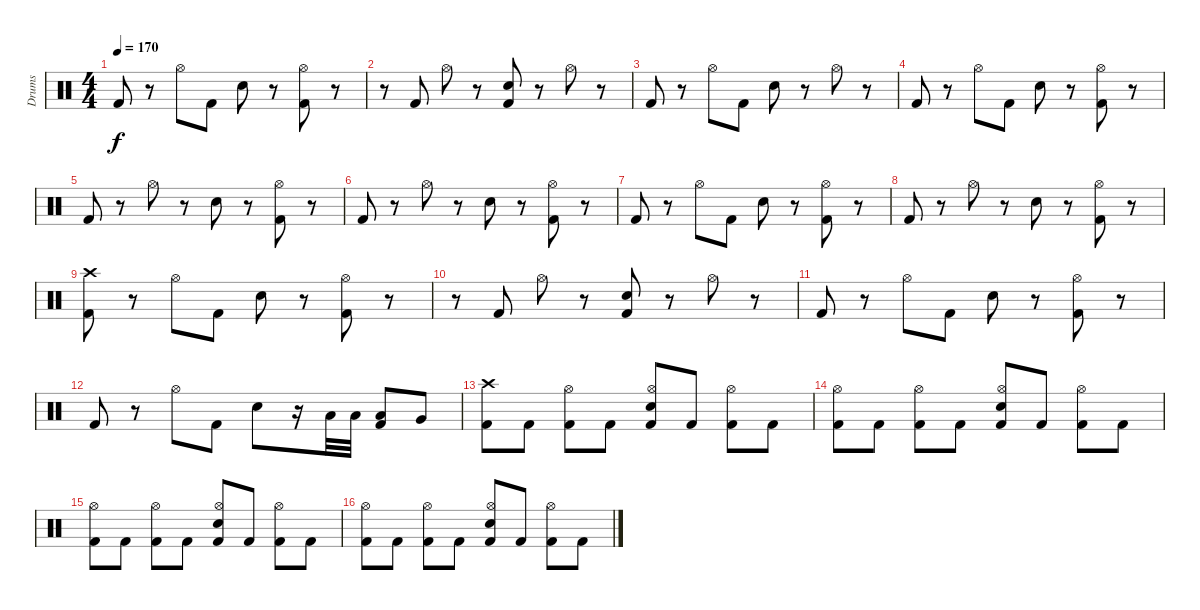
\track ("Drums" "Drums") {instrument percussion}
\staff {score}
\articulation defaults
\ts (4 4)
\tempo 170
\clef neutral
\ks c "Kick (hit) 2".8{dy f}
r.8 "Hi-Hat (open)".8 "Kick (hit) 2".8 "Electric Snare (hit)".8 r.8 ("Kick (hit) 2" "Hi-Hat (open)").8 r.8 |
r.8 "Kick (hit) 2".8 "Hi-Hat (open)".8 r.8 ("Kick (hit) 2" "Electric Snare (hit)").8 r.8 "Hi-Hat (open)".8 r.8 |
"Kick (hit) 2".8 r.8 "Hi-Hat (open)".8 "Kick (hit) 2".8 "Electric Snare (hit)".8 r.8 "Hi-Hat (open)".8 r.8 |
"Kick (hit) 2".8 r.8 "Hi-Hat (open)".8 "Kick (hit) 2".8 "Electric Snare (hit)".8 r.8 ("Kick (hit) 2" "Hi-Hat (open)").8 r.8 |
"Kick (hit) 2".8 r.8 "Hi-Hat (open)".8 r.8 "Electric Snare (hit)".8 r.8 ("Kick (hit) 2" "Hi-Hat (open)").8 r.8 |
"Kick (hit) 2".8 r.8 "Hi-Hat (open)".8 r.8 "Electric Snare (hit)".8 r.8 ("Kick (hit) 2" "Hi-Hat (open)").8 r.8 |
"Kick (hit) 2".8 r.8 "Hi-Hat (open)".8 "Kick (hit) 2".8 "Electric Snare (hit)".8 r.8 ("Kick (hit) 2" "Hi-Hat (open)").8 r.8 |
"Kick (hit) 2".8 r.8 "Hi-Hat (open)".8 r.8 "Electric Snare (hit)".8 r.8 ("Kick (hit) 2" "Hi-Hat (open)").8 r.8 |
("Kick (hit) 2" "Crash high (hit)").8 r.8 "Hi-Hat (open)".8 "Kick (hit) 2".8 "Electric Snare (hit)".8 r.8 ("Kick (hit) 2" "Hi-Hat (open)").8 r.8 |
r.8 "Kick (hit) 2".8 "Hi-Hat (open)".8 r.8 ("Kick (hit) 2" "Electric Snare (hit)").8 r.8 "Hi-Hat (open)".8 r.8 |
"Kick (hit) 2".8 r.8 "Hi-Hat (open)".8 "Kick (hit) 2".8 "Electric Snare (hit)".8 r.8 ("Kick (hit) 2" "Hi-Hat (open)").8 r.8 |
"Kick (hit) 2".8 r.8 "Hi-Hat (open)".8 "Kick (hit) 2".8 "Electric Snare (hit)".8 r.16 "Low Tom (hit)".32 "Low Tom (hit)".32 ("Kick (hit) 2" "Low Tom (hit)").8 "Very Low Tom (hit)".8 |
("Kick (hit) 2" "Crash high (hit)").8 "Kick (hit) 2".8 ("Kick (hit) 2" "Hi-Hat (open)").8 "Kick (hit) 2".8 ("Kick (hit) 2" "Hi-Hat (open)" "Electric Snare (hit)").8 "Kick (hit) 2".8 ("Kick (hit) 2" "Hi-Hat (open)").8 "Kick (hit) 2".8 |
("Kick (hit) 2" "Hi-Hat (open)").8 "Kick (hit) 2".8 ("Kick (hit) 2" "Hi-Hat (open)").8 "Kick (hit) 2".8 ("Kick (hit) 2" "Hi-Hat (open)" "Electric Snare (hit)").8 "Kick (hit) 2".8 ("Kick (hit) 2" "Hi-Hat (open)").8 "Kick (hit) 2".8 |
("Kick (hit) 2" "Hi-Hat (open)").8 "Kick (hit) 2".8 ("Kick (hit) 2" "Hi-Hat (open)").8 "Kick (hit) 2".8 ("Kick (hit) 2" "Hi-Hat (open)" "Electric Snare (hit)").8 "Kick (hit) 2".8 ("Kick (hit) 2" "Hi-Hat (open)").8 "Kick (hit) 2".8 |
("Kick (hit) 2" "Hi-Hat (open)").8 "Kick (hit) 2".8 ("Kick (hit) 2" "Hi-Hat (open)").8 "Kick (hit) 2".8 ("Kick (hit) 2" "Hi-Hat (open)" "Electric Snare (hit)").8 "Kick (hit) 2".8 ("Kick (hit) 2" "Hi-Hat (open)").8 "Kick (hit) 2".8
